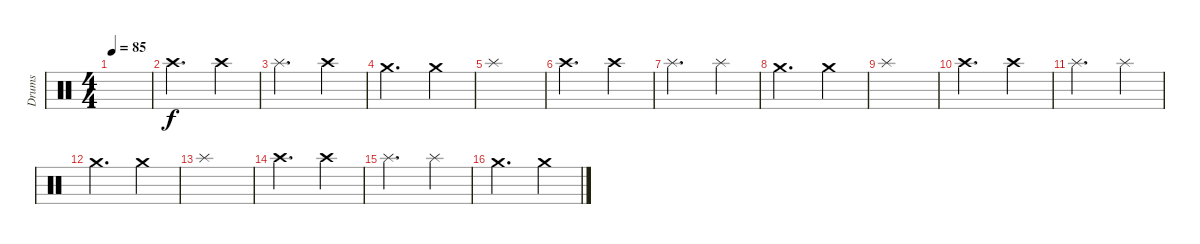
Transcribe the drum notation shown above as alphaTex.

\track ("Drums" "Drums") {instrument percussion}
\staff {score}
\articulation defaults
\ts (4 4)
\tempo 85
\clef neutral
\ks c
|
"Crash high (hit)".2{d} "Crash high (hit)".4 |
"Splash (hit)".2{d} "Crash high (hit)".4 |
"Crash medium (hit)".2{d} "Crash medium (hit)".4 |
"Splash (hit)".1 |
"Crash high (hit)".2{d} "Crash high (hit)".4 |
"Splash (hit)".2{d} "Splash (hit)".4 |
"Crash medium (hit)".2{d} "Crash medium (hit)".4 |
"Splash (hit)".1 |
"Crash high (hit)".2{d} "Crash high (hit)".4 |
"Splash (hit)".2{d} "Splash (hit)".4 |
"Crash medium (hit)".2{d} "Crash medium (hit)".4 |
"Splash (hit)".1 |
"Crash high (hit)".2{d} "Crash high (hit)".4 |
"Splash (hit)".2{d} "Splash (hit)".4 |
"Crash medium (hit)".2{d} "Crash medium (hit)".4
